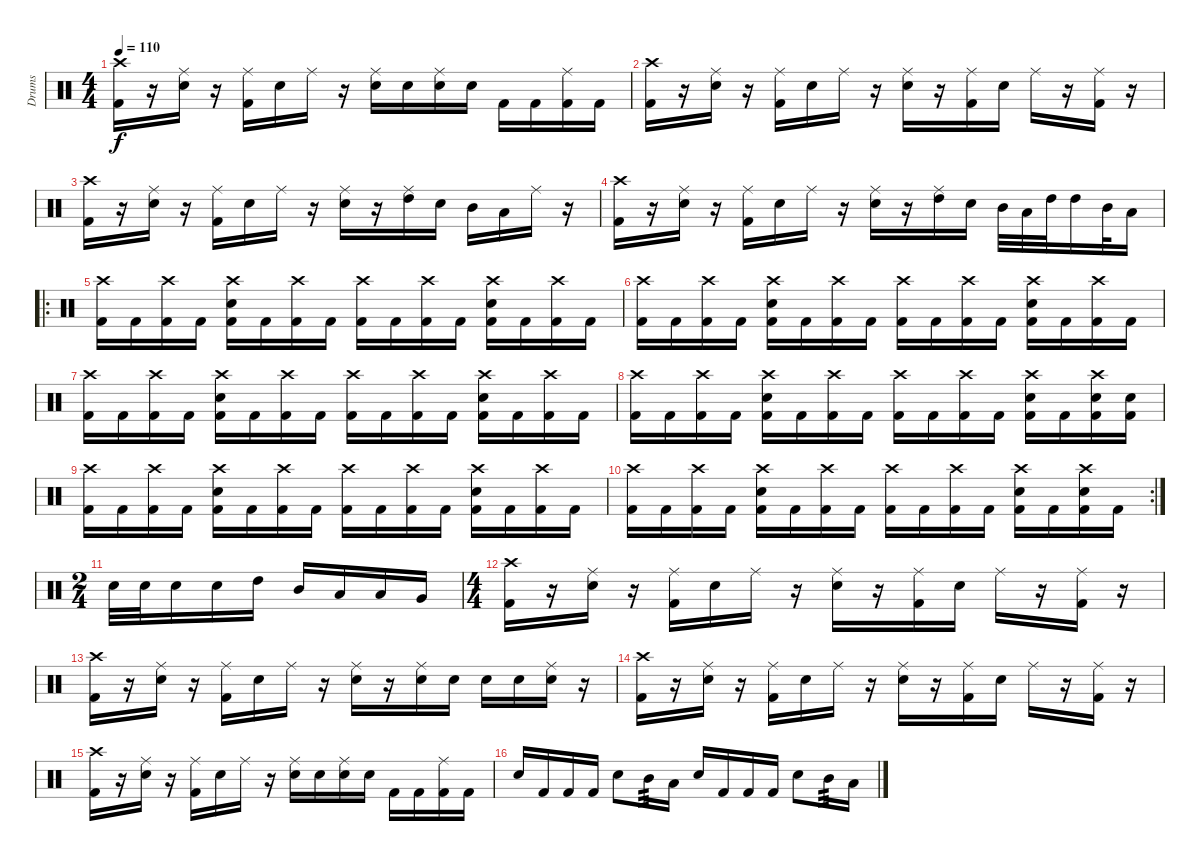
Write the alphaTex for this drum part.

\track ("Drums" "Drums") {instrument percussion}
\staff {score}
\articulation defaults
\ts (4 4)
\tempo 110
\clef neutral
\ks c
("Crash high (hit)" "Kick (hit) 2").16{dy f} r.16 ("Ride (middle)" "Electric Snare (hit)").16 r.16 ("Ride (middle)" "Kick (hit) 2").16 "Electric Snare (hit)".16 "Ride (middle)".16 r.16 ("Ride (middle)" "Electric Snare (hit)").16 "Electric Snare (hit)".16 ("Ride (middle)" "Electric Snare (hit)").16 "Electric Snare (hit)".16 "Kick (hit) 2".16 "Kick (hit) 2".16 ("Ride (middle)" "Kick (hit) 2").16 "Kick (hit) 2".16 |
("Crash high (hit)" "Kick (hit) 2").16 r.16 ("Ride (middle)" "Electric Snare (hit)").16 r.16 ("Ride (middle)" "Kick (hit) 2").16 "Electric Snare (hit)".16 "Ride (middle)".16 r.16 ("Ride (middle)" "Electric Snare (hit)").16 r.16 ("Ride (middle)" "Kick (hit) 2").16 "Electric Snare (hit)".16 "Ride (middle)".16 r.16 ("Ride (middle)" "Kick (hit) 2").16 r.16 |
("Crash high (hit)" "Kick (hit) 2").16 r.16 ("Ride (middle)" "Electric Snare (hit)").16 r.16 ("Ride (middle)" "Kick (hit) 2").16 "Electric Snare (hit)".16 "Ride (middle)".16 r.16 ("Ride (middle)" "Electric Snare (hit)").16 r.16 ("Ride (middle)" "High Tom (hit)").16 "Electric Snare (hit)".16 "Mid Tom (hit)".16 "Low Tom (hit)".16 "Ride (middle)".16 r.16 |
("Crash high (hit)" "Kick (hit) 2").16 r.16 ("Ride (middle)" "Electric Snare (hit)").16 r.16 ("Ride (middle)" "Kick (hit) 2").16 "Electric Snare (hit)".16 "Ride (middle)".16 r.16 ("Ride (middle)" "Electric Snare (hit)").16 r.16 ("Ride (middle)" "High Tom (hit)").16 "Electric Snare (hit)".16 "Mid Tom (hit)".32 "Low Tom (hit)".32 "High Tom (hit)".32 "High Tom (hit)".16 "Mid Tom (hit)".32 "Low Tom (hit)".16 |
\ro
("Crash high (hit)" "Kick (hit) 2").16 "Kick (hit) 2".16 ("Crash high (hit)" "Kick (hit) 2").16 "Kick (hit) 2".16 ("Crash high (hit)" "Electric Snare (hit)" "Kick (hit) 2").16 "Kick (hit) 2".16 ("Crash high (hit)" "Kick (hit) 2").16 "Kick (hit) 2".16 ("Crash high (hit)" "Kick (hit) 2").16 "Kick (hit) 2".16 ("Crash high (hit)" "Kick (hit) 2").16 "Kick (hit) 2".16 ("Crash high (hit)" "Electric Snare (hit)" "Kick (hit) 2").16 "Kick (hit) 2".16 ("Crash high (hit)" "Kick (hit) 2").16 "Kick (hit) 2".16 |
("Crash high (hit)" "Kick (hit) 2").16 "Kick (hit) 2".16 ("Crash high (hit)" "Kick (hit) 2").16 "Kick (hit) 2".16 ("Crash high (hit)" "Electric Snare (hit)" "Kick (hit) 2").16 "Kick (hit) 2".16 ("Crash high (hit)" "Kick (hit) 2").16 "Kick (hit) 2".16 ("Crash high (hit)" "Kick (hit) 2").16 "Kick (hit) 2".16 ("Crash high (hit)" "Kick (hit) 2").16 "Kick (hit) 2".16 ("Crash high (hit)" "Electric Snare (hit)" "Kick (hit) 2").16 "Kick (hit) 2".16 ("Crash high (hit)" "Kick (hit) 2").16 "Kick (hit) 2".16 |
("Crash high (hit)" "Kick (hit) 2").16 "Kick (hit) 2".16 ("Crash high (hit)" "Kick (hit) 2").16 "Kick (hit) 2".16 ("Crash high (hit)" "Electric Snare (hit)" "Kick (hit) 2").16 "Kick (hit) 2".16 ("Crash high (hit)" "Kick (hit) 2").16 "Kick (hit) 2".16 ("Crash high (hit)" "Kick (hit) 2").16 "Kick (hit) 2".16 ("Crash high (hit)" "Kick (hit) 2").16 "Kick (hit) 2".16 ("Crash high (hit)" "Electric Snare (hit)" "Kick (hit) 2").16 "Kick (hit) 2".16 ("Crash high (hit)" "Kick (hit) 2").16 "Kick (hit) 2".16 |
("Crash high (hit)" "Kick (hit) 2").16 "Kick (hit) 2".16 ("Crash high (hit)" "Kick (hit) 2").16 "Kick (hit) 2".16 ("Crash high (hit)" "Electric Snare (hit)" "Kick (hit) 2").16 "Kick (hit) 2".16 ("Crash high (hit)" "Kick (hit) 2").16 "Kick (hit) 2".16 ("Crash high (hit)" "Kick (hit) 2").16 "Kick (hit) 2".16 ("Crash high (hit)" "Kick (hit) 2").16 "Kick (hit) 2".16 ("Crash high (hit)" "Electric Snare (hit)" "Kick (hit) 2").16 "Kick (hit) 2".16 ("Crash high (hit)" "Electric Snare (hit)" "Kick (hit) 2").16 ("Electric Snare (hit)" "Kick (hit) 2").16 |
("Crash high (hit)" "Kick (hit) 2").16 "Kick (hit) 2".16 ("Crash high (hit)" "Kick (hit) 2").16 "Kick (hit) 2".16 ("Crash high (hit)" "Electric Snare (hit)" "Kick (hit) 2").16 "Kick (hit) 2".16 ("Crash high (hit)" "Kick (hit) 2").16 "Kick (hit) 2".16 ("Crash high (hit)" "Kick (hit) 2").16 "Kick (hit) 2".16 ("Crash high (hit)" "Kick (hit) 2").16 "Kick (hit) 2".16 ("Crash high (hit)" "Electric Snare (hit)" "Kick (hit) 2").16 "Kick (hit) 2".16 ("Crash high (hit)" "Kick (hit) 2").16 "Kick (hit) 2".16 |
\rc 2
("Crash high (hit)" "Kick (hit) 2").16 "Kick (hit) 2".16 ("Crash high (hit)" "Kick (hit) 2").16 "Kick (hit) 2".16 ("Crash high (hit)" "Electric Snare (hit)" "Kick (hit) 2").16 "Kick (hit) 2".16 ("Crash high (hit)" "Kick (hit) 2").16 "Kick (hit) 2".16 ("Crash high (hit)" "Kick (hit) 2").16 "Kick (hit) 2".16 ("Crash high (hit)" "Kick (hit) 2").16 "Kick (hit) 2".16 ("Crash high (hit)" "Electric Snare (hit)" "Kick (hit) 2").16 "Kick (hit) 2".16 ("Crash high (hit)" "Electric Snare (hit)" "Kick (hit) 2").16 "Kick (hit) 2".16 |
\ts (2 4)
"Electric Snare (hit)".32 "Electric Snare (hit)".32 "Electric Snare (hit)".16 "Electric Snare (hit)".16 "High Tom (hit)".16 "Mid Tom (hit)".16 "Low Tom (hit)".16 "Low Tom (hit)".16 "Very Low Tom (hit)".16 |
\ts (4 4)
("Crash high (hit)" "Kick (hit) 2").16 r.16 ("Ride (middle)" "Electric Snare (hit)").16 r.16 ("Ride (middle)" "Kick (hit) 2").16 "Electric Snare (hit)".16 "Ride (middle)".16 r.16 ("Ride (middle)" "Electric Snare (hit)").16 r.16 ("Ride (middle)" "Kick (hit) 2").16 "Electric Snare (hit)".16 "Ride (middle)".16 r.16 ("Ride (middle)" "Kick (hit) 2").16 r.16 |
("Crash high (hit)" "Kick (hit) 2").16 r.16 ("Ride (middle)" "Electric Snare (hit)").16 r.16 ("Ride (middle)" "Kick (hit) 2").16 "Electric Snare (hit)".16 "Ride (middle)".16 r.16 ("Ride (middle)" "Electric Snare (hit)").16 r.16 ("Ride (middle)" "Electric Snare (hit)").16 "Electric Snare (hit)".16 "Electric Snare (hit)".16 "Electric Snare (hit)".16 ("Ride (middle)" "Electric Snare (hit)").16 r.16 |
("Crash high (hit)" "Kick (hit) 2").16 r.16 ("Ride (middle)" "Electric Snare (hit)").16 r.16 ("Ride (middle)" "Kick (hit) 2").16 "Electric Snare (hit)".16 "Ride (middle)".16 r.16 ("Ride (middle)" "Electric Snare (hit)").16 r.16 ("Ride (middle)" "Kick (hit) 2").16 "Electric Snare (hit)".16 "Ride (middle)".16 r.16 ("Ride (middle)" "Kick (hit) 2").16 r.16 |
("Crash high (hit)" "Kick (hit) 2").16 r.16 ("Ride (middle)" "Electric Snare (hit)").16 r.16 ("Ride (middle)" "Kick (hit) 2").16 "Electric Snare (hit)".16 "Ride (middle)".16 r.16 ("Ride (middle)" "Electric Snare (hit)").16 "Electric Snare (hit)".16 ("Ride (middle)" "Electric Snare (hit)").16 "Electric Snare (hit)".16 "Kick (hit) 2".16 "Kick (hit) 2".16 ("Ride (middle)" "Kick (hit) 2").16 "Kick (hit) 2".16 |
"Electric Snare (hit)".16 "Kick (hit) 2".16 "Kick (hit) 2".16 "Kick (hit) 2".16 "Electric Snare (hit)".8 "Mid Tom (hit)".16{tp 3} "Low Tom (hit)".16 "Electric Snare (hit)".16 "Kick (hit) 2".16 "Kick (hit) 2".16 "Kick (hit) 2".16 "Electric Snare (hit)".8 "Mid Tom (hit)".16{tp 3} "Low Tom (hit)".16
